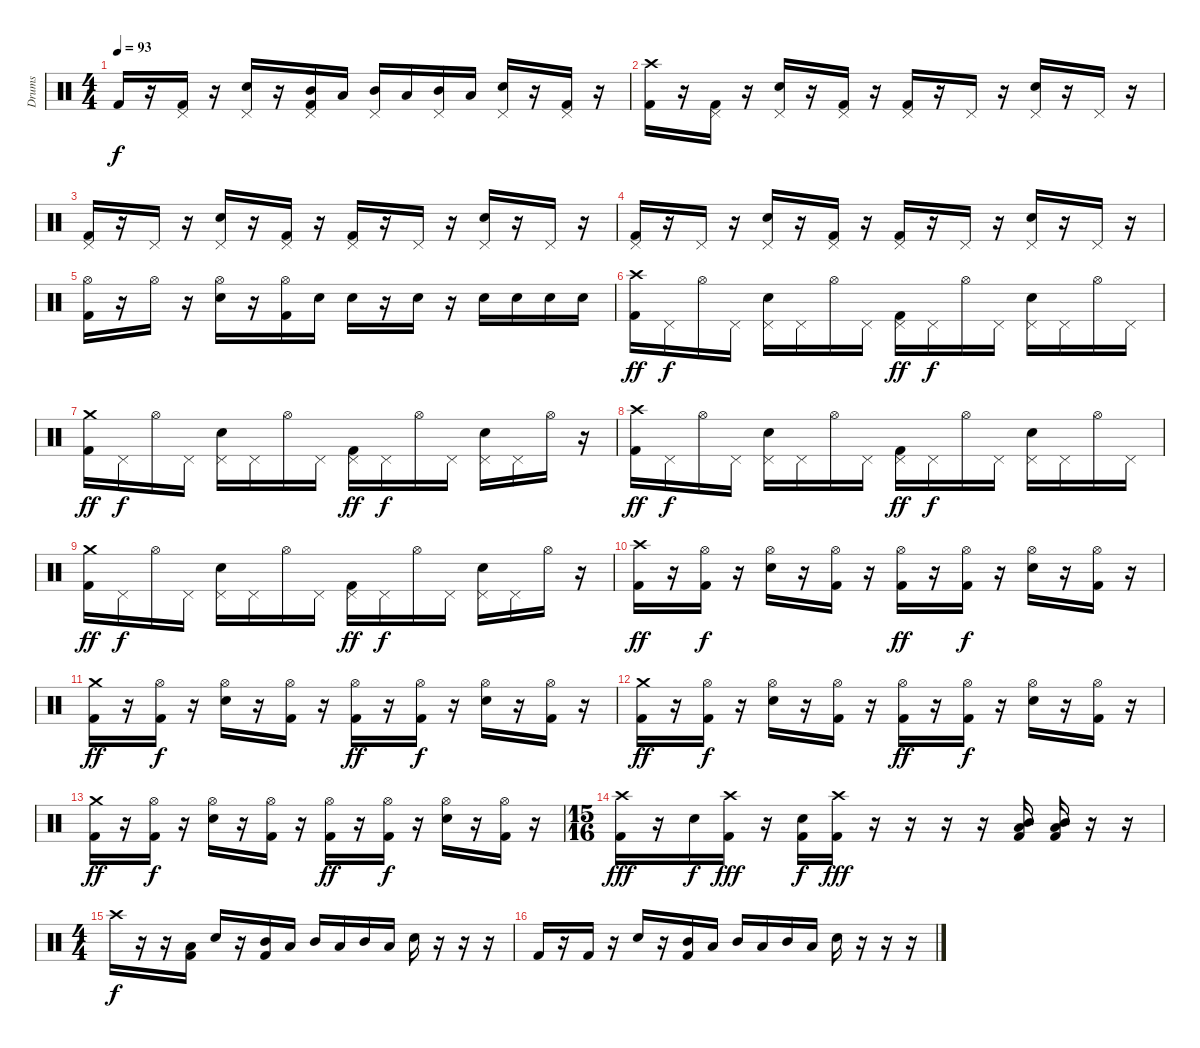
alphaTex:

\track ("Drums" "Drums") {instrument percussion}
\staff {score}
\articulation defaults
\ts (4 4)
\tempo 93
\clef neutral
\ks c "Kick (hit) 2".16{dy f}
r.16 ("Pedal Hi-Hat (hit)" "Kick (hit) 2").16 r.16 ("Pedal Hi-Hat (hit)" "Electric Snare (hit)").16 r.16 ("Pedal Hi-Hat (hit)" "Mid Tom (hit)" "Kick (hit) 2").16 "Low Tom (hit)".16 ("Pedal Hi-Hat (hit)" "Mid Tom (hit)").16 "Low Tom (hit)".16 ("Pedal Hi-Hat (hit)" "Mid Tom (hit)").16 "Low Tom (hit)".16 ("Pedal Hi-Hat (hit)" "Electric Snare (hit)").16 r.16 ("Pedal Hi-Hat (hit)" "Kick (hit) 2").16 r.16 |
("Crash high (hit)" "Kick (hit) 2").16 r.16 ("Pedal Hi-Hat (hit)" "Kick (hit) 2").16 r.16 ("Pedal Hi-Hat (hit)" "Electric Snare (hit)").16 r.16 ("Pedal Hi-Hat (hit)" "Kick (hit) 2").16 r.16 ("Pedal Hi-Hat (hit)" "Kick (hit) 2").16 r.16 "Pedal Hi-Hat (hit)".16 r.16 ("Pedal Hi-Hat (hit)" "Electric Snare (hit)").16 r.16 "Pedal Hi-Hat (hit)".16 r.16 |
("Pedal Hi-Hat (hit)" "Kick (hit) 2").16 r.16 "Pedal Hi-Hat (hit)".16 r.16 ("Pedal Hi-Hat (hit)" "Electric Snare (hit)").16 r.16 ("Pedal Hi-Hat (hit)" "Kick (hit) 2").16 r.16 ("Pedal Hi-Hat (hit)" "Kick (hit) 2").16 r.16 "Pedal Hi-Hat (hit)".16 r.16 ("Pedal Hi-Hat (hit)" "Electric Snare (hit)").16 r.16 "Pedal Hi-Hat (hit)".16 r.16 |
("Pedal Hi-Hat (hit)" "Kick (hit) 2").16 r.16 "Pedal Hi-Hat (hit)".16 r.16 ("Pedal Hi-Hat (hit)" "Electric Snare (hit)").16 r.16 ("Pedal Hi-Hat (hit)" "Kick (hit) 2").16 r.16 ("Pedal Hi-Hat (hit)" "Kick (hit) 2").16 r.16 "Pedal Hi-Hat (hit)".16 r.16 ("Pedal Hi-Hat (hit)" "Electric Snare (hit)").16 r.16 "Pedal Hi-Hat (hit)".16 r.16 |
("Hi-Hat (open)" "Kick (hit) 2").16 r.16 "Hi-Hat (open)".16 r.16 ("Hi-Hat (open)" "Electric Snare (hit)").16 r.16 ("Hi-Hat (open)" "Kick (hit) 2").16 "Electric Snare (hit)".16 "Electric Snare (hit)".16 r.16 "Electric Snare (hit)".16 r.16 "Electric Snare (hit)".16 "Electric Snare (hit)".16 "Electric Snare (hit)".16 "Electric Snare (hit)".16 |
("Crash high (hit)" "Kick (hit) 2").16{dy ff} "Pedal Hi-Hat (hit)".16{dy f} "Hi-Hat (open)".16 "Pedal Hi-Hat (hit)".16 ("Pedal Hi-Hat (hit)" "Electric Snare (hit)").16 "Pedal Hi-Hat (hit)".16 "Hi-Hat (open)".16 "Pedal Hi-Hat (hit)".16 ("Pedal Hi-Hat (hit)" "Kick (hit) 2").16{dy ff} "Pedal Hi-Hat (hit)".16{dy f} "Hi-Hat (open)".16 "Pedal Hi-Hat (hit)".16 ("Pedal Hi-Hat (hit)" "Electric Snare (hit)").16 "Pedal Hi-Hat (hit)".16 "Hi-Hat (open)".16 "Pedal Hi-Hat (hit)".16 |
("Crash medium (hit)" "Kick (hit) 2").16{dy ff} "Pedal Hi-Hat (hit)".16{dy f} "Hi-Hat (open)".16 "Pedal Hi-Hat (hit)".16 ("Pedal Hi-Hat (hit)" "Electric Snare (hit)").16 "Pedal Hi-Hat (hit)".16 "Hi-Hat (open)".16 "Pedal Hi-Hat (hit)".16 ("Pedal Hi-Hat (hit)" "Kick (hit) 2").16{dy ff} "Pedal Hi-Hat (hit)".16{dy f} "Hi-Hat (open)".16 "Pedal Hi-Hat (hit)".16 ("Pedal Hi-Hat (hit)" "Electric Snare (hit)").16 "Pedal Hi-Hat (hit)".16 "Hi-Hat (open)".16 r.16 |
("Crash high (hit)" "Kick (hit) 2").16{dy ff} "Pedal Hi-Hat (hit)".16{dy f} "Hi-Hat (open)".16 "Pedal Hi-Hat (hit)".16 ("Pedal Hi-Hat (hit)" "Electric Snare (hit)").16 "Pedal Hi-Hat (hit)".16 "Hi-Hat (open)".16 "Pedal Hi-Hat (hit)".16 ("Pedal Hi-Hat (hit)" "Kick (hit) 2").16{dy ff} "Pedal Hi-Hat (hit)".16{dy f} "Hi-Hat (open)".16 "Pedal Hi-Hat (hit)".16 ("Pedal Hi-Hat (hit)" "Electric Snare (hit)").16 "Pedal Hi-Hat (hit)".16 "Hi-Hat (open)".16 "Pedal Hi-Hat (hit)".16 |
("Crash medium (hit)" "Kick (hit) 2").16{dy ff} "Pedal Hi-Hat (hit)".16{dy f} "Hi-Hat (open)".16 "Pedal Hi-Hat (hit)".16 ("Pedal Hi-Hat (hit)" "Electric Snare (hit)").16 "Pedal Hi-Hat (hit)".16 "Hi-Hat (open)".16 "Pedal Hi-Hat (hit)".16 ("Pedal Hi-Hat (hit)" "Kick (hit) 2").16{dy ff} "Pedal Hi-Hat (hit)".16{dy f} "Hi-Hat (open)".16 "Pedal Hi-Hat (hit)".16 ("Pedal Hi-Hat (hit)" "Electric Snare (hit)").16 "Pedal Hi-Hat (hit)".16 "Hi-Hat (open)".16 r.16 |
("Crash high (hit)" "Kick (hit) 2").16{dy ff} r.16 ("Hi-Hat (open)" "Kick (hit) 2").16{dy f} r.16 ("Hi-Hat (open)" "Electric Snare (hit)").16 r.16 ("Hi-Hat (open)" "Kick (hit) 2").16 r.16 ("Hi-Hat (open)" "Kick (hit) 2").16{dy ff} r.16 ("Hi-Hat (open)" "Kick (hit) 2").16{dy f} r.16 ("Hi-Hat (open)" "Electric Snare (hit)").16 r.16 ("Hi-Hat (open)" "Kick (hit) 2").16 r.16 |
("Crash medium (hit)" "Kick (hit) 2").16{dy ff} r.16 ("Hi-Hat (open)" "Kick (hit) 2").16{dy f} r.16 ("Hi-Hat (open)" "Electric Snare (hit)").16 r.16 ("Hi-Hat (open)" "Kick (hit) 2").16 r.16 ("Hi-Hat (open)" "Kick (hit) 2").16{dy ff} r.16 ("Hi-Hat (open)" "Kick (hit) 2").16{dy f} r.16 ("Hi-Hat (open)" "Electric Snare (hit)").16 r.16 ("Hi-Hat (open)" "Kick (hit) 2").16 r.16 |
("Crash medium (hit)" "Kick (hit) 2").16{dy ff} r.16 ("Hi-Hat (open)" "Kick (hit) 2").16{dy f} r.16 ("Hi-Hat (open)" "Electric Snare (hit)").16 r.16 ("Hi-Hat (open)" "Kick (hit) 2").16 r.16 ("Hi-Hat (open)" "Kick (hit) 2").16{dy ff} r.16 ("Hi-Hat (open)" "Kick (hit) 2").16{dy f} r.16 ("Hi-Hat (open)" "Electric Snare (hit)").16 r.16 ("Hi-Hat (open)" "Kick (hit) 2").16 r.16 |
("Crash medium (hit)" "Kick (hit) 2").16{dy ff} r.16 ("Hi-Hat (open)" "Kick (hit) 2").16{dy f} r.16 ("Hi-Hat (open)" "Electric Snare (hit)").16 r.16 ("Hi-Hat (open)" "Kick (hit) 2").16 r.16 ("Hi-Hat (open)" "Kick (hit) 2").16{dy ff} r.16 ("Hi-Hat (open)" "Kick (hit) 2").16{dy f} r.16 ("Hi-Hat (open)" "Electric Snare (hit)").16 r.16 ("Hi-Hat (open)" "Kick (hit) 2").16 r.16 |
\ts (15 16)
("Crash high (hit)" "Kick (hit) 2").16{dy fff} r.16 "Electric Snare (hit)".16{dy f} ("Crash high (hit)" "Kick (hit) 2").16{dy fff} r.16 ("Electric Snare (hit)" "Kick (hit) 2").16{dy f} ("Crash high (hit)" "Kick (hit) 2").16{dy fff} r.16 r.16 r.16 r.16 ("Mid Tom (hit)" "Low Tom (hit)" "Kick (hit) 2").16 ("Mid Tom (hit)" "Low Tom (hit)" "Kick (hit) 2").16 r.16 r.16 |
\ts (4 4)
"Crash high (hit)".16{dy f} r.16 r.16 ("Low Tom (hit)" "Kick (hit) 2").16 "Electric Snare (hit)".16 r.16 ("Mid Tom (hit)" "Kick (hit) 2").16 "Low Tom (hit)".16 "Mid Tom (hit)".16 "Low Tom (hit)".16 "Mid Tom (hit)".16 "Low Tom (hit)".16 "Electric Snare (hit)".16 r.16 r.16 r.16 |
"Kick (hit) 2".16 r.16 "Kick (hit) 2".16 r.16 "Electric Snare (hit)".16 r.16 ("Mid Tom (hit)" "Kick (hit) 2").16 "Low Tom (hit)".16 "Mid Tom (hit)".16 "Low Tom (hit)".16 "Mid Tom (hit)".16 "Low Tom (hit)".16 "Electric Snare (hit)".16 r.16 r.16 r.16
